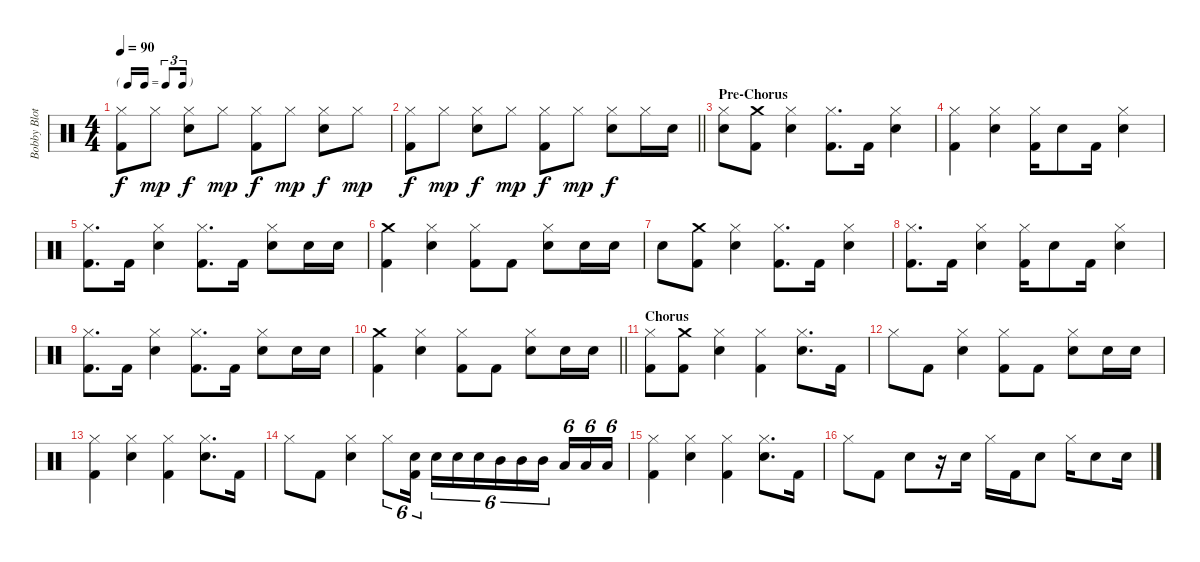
\track ("Bobby Blotzer - Drums" "Bobby Blot") {instrument percussion}
\staff {score}
\articulation defaults
\ts (4 4)
\tf triplet16th
\tempo 90
\clef neutral
\ks c
("Hi-Hat (closed)" "Kick (hit) 2").8{dy f} "Hi-Hat (closed)".8{dy mp} ("Hi-Hat (closed)" "Snare (hit) 2").8{dy f} "Hi-Hat (closed)".8{dy mp} ("Hi-Hat (closed)" "Kick (hit) 2").8{dy f} "Hi-Hat (closed)".8{dy mp} ("Hi-Hat (closed)" "Snare (hit) 2").8{dy f} "Hi-Hat (closed)".8{dy mp} |
\barLineRight lightlight
("Hi-Hat (closed)" "Kick (hit) 2").8{dy f} "Hi-Hat (closed)".8{dy mp} ("Hi-Hat (closed)" "Snare (hit) 2").8{dy f} "Hi-Hat (closed)".8{dy mp} ("Hi-Hat (closed)" "Kick (hit) 2").8{dy f} "Hi-Hat (closed)".8{dy mp} ("Hi-Hat (closed)" "Snare (hit) 2").8{dy f} "Hi-Hat (closed)".16 "Snare (hit) 2".16 |
\section ("" "Pre-Chorus")
("Hi-Hat (closed)" "Snare (hit) 2").8 ("Crash medium (hit)" "Kick (hit) 2").8 ("Hi-Hat (closed)" "Snare (hit) 2").4 ("Hi-Hat (closed)" "Kick (hit) 2").8{d} "Kick (hit) 2".16 ("Hi-Hat (closed)" "Snare (hit) 2").4 |
("Hi-Hat (closed)" "Kick (hit) 2").4 ("Hi-Hat (closed)" "Snare (hit) 2").4 ("Hi-Hat (closed)" "Kick (hit) 2").16 "Snare (hit) 2".8 "Kick (hit) 2".16 ("Hi-Hat (closed)" "Snare (hit) 2").4 |
("Hi-Hat (closed)" "Kick (hit) 2").8{d} "Kick (hit) 2".16 ("Hi-Hat (closed)" "Snare (hit) 2").4 ("Hi-Hat (closed)" "Kick (hit) 2").8{d} "Kick (hit) 2".16 ("Hi-Hat (closed)" "Snare (hit) 2").8 "Snare (hit) 2".16 "Snare (hit) 2".16 |
("Crash medium (hit)" "Kick (hit) 2").4 ("Hi-Hat (closed)" "Snare (hit) 2").4 ("Hi-Hat (closed)" "Kick (hit) 2").8 "Kick (hit) 2".8 ("Hi-Hat (closed)" "Snare (hit) 2").8 "Snare (hit) 2".16 "Snare (hit) 2".16 |
"Snare (hit) 2".8 ("Crash medium (hit)" "Kick (hit) 2").8 ("Hi-Hat (closed)" "Snare (hit) 2").4 ("Hi-Hat (closed)" "Kick (hit) 2").8{d} "Kick (hit) 2".16 ("Hi-Hat (closed)" "Snare (hit) 2").4 |
("Hi-Hat (closed)" "Kick (hit) 2").8{d} "Kick (hit) 2".16 ("Hi-Hat (closed)" "Snare (hit) 2").4 ("Hi-Hat (closed)" "Kick (hit) 2").16 "Snare (hit) 2".8 "Kick (hit) 2".16 ("Hi-Hat (closed)" "Snare (hit) 2").4 |
("Hi-Hat (closed)" "Kick (hit) 2").8{d} "Kick (hit) 2".16 ("Hi-Hat (closed)" "Snare (hit) 2").4 ("Hi-Hat (closed)" "Kick (hit) 2").8{d} "Kick (hit) 2".16 ("Hi-Hat (closed)" "Snare (hit) 2").8 "Snare (hit) 2".16 "Snare (hit) 2".16 |
\barLineRight lightlight
("Crash medium (hit)" "Kick (hit) 2").4 ("Hi-Hat (closed)" "Snare (hit) 2").4 ("Hi-Hat (closed)" "Kick (hit) 2").8 "Kick (hit) 2".8 ("Hi-Hat (closed)" "Snare (hit) 2").8 "Snare (hit) 2".16 "Snare (hit) 2".16 |
\section ("" "Chorus")
("Hi-Hat (closed)" "Kick (hit) 2").8 ("Crash medium (hit)" "Kick (hit) 2").8 ("Hi-Hat (closed)" "Snare (hit) 2").4 ("Hi-Hat (closed)" "Kick (hit) 2").4 ("Hi-Hat (closed)" "Snare (hit) 2").8{d} "Kick (hit) 2".16 |
"Hi-Hat (closed)".8 "Kick (hit) 2".8 ("Hi-Hat (closed)" "Snare (hit) 2").4 ("Hi-Hat (closed)" "Kick (hit) 2").8 "Kick (hit) 2".8 ("Hi-Hat (closed)" "Snare (hit) 2").8 "Snare (hit) 2".16 "Snare (hit) 2".16 |
("Hi-Hat (closed)" "Kick (hit) 2").4 ("Hi-Hat (closed)" "Snare (hit) 2").4 ("Hi-Hat (closed)" "Kick (hit) 2").4 ("Hi-Hat (closed)" "Snare (hit) 2").8{d} "Kick (hit) 2".16 |
"Hi-Hat (closed)".8 "Kick (hit) 2".8 ("Hi-Hat (closed)" "Snare (hit) 2").4 "Hi-Hat (closed)".8{tu (6 4)} ("Snare (hit) 2" "Kick (hit) 2").16{tu (6 4) beam splitsecondary} "Snare (hit) 2".16{tu (6 4)} "Snare (hit) 2".16{tu (6 4)} "Snare (hit) 2".16{tu (6 4)} "Mid Tom (hit)".16{tu (6 4)} "Mid Tom (hit)".16{tu (6 4)} "Mid Tom (hit)".16{tu (6 4) beam splitsecondary} "Low Tom (hit)".16{tu (6 4)} "Low Tom (hit)".16{tu (6 4)} "Low Tom (hit)".16{tu (6 4)} |
("Hi-Hat (closed)" "Kick (hit) 2").4 ("Hi-Hat (closed)" "Snare (hit) 2").4 ("Hi-Hat (closed)" "Kick (hit) 2").4 ("Hi-Hat (closed)" "Snare (hit) 2").8{d} "Kick (hit) 2".16 |
"Hi-Hat (closed)".8 "Kick (hit) 2".8 "Snare (hit) 2".8 r.16 "Snare (hit) 2".16 "Hi-Hat (closed)".16 "Kick (hit) 2".16 "Snare (hit) 2".8 "Hi-Hat (closed)".16 "Snare (hit) 2".8 "Snare (hit) 2".16
